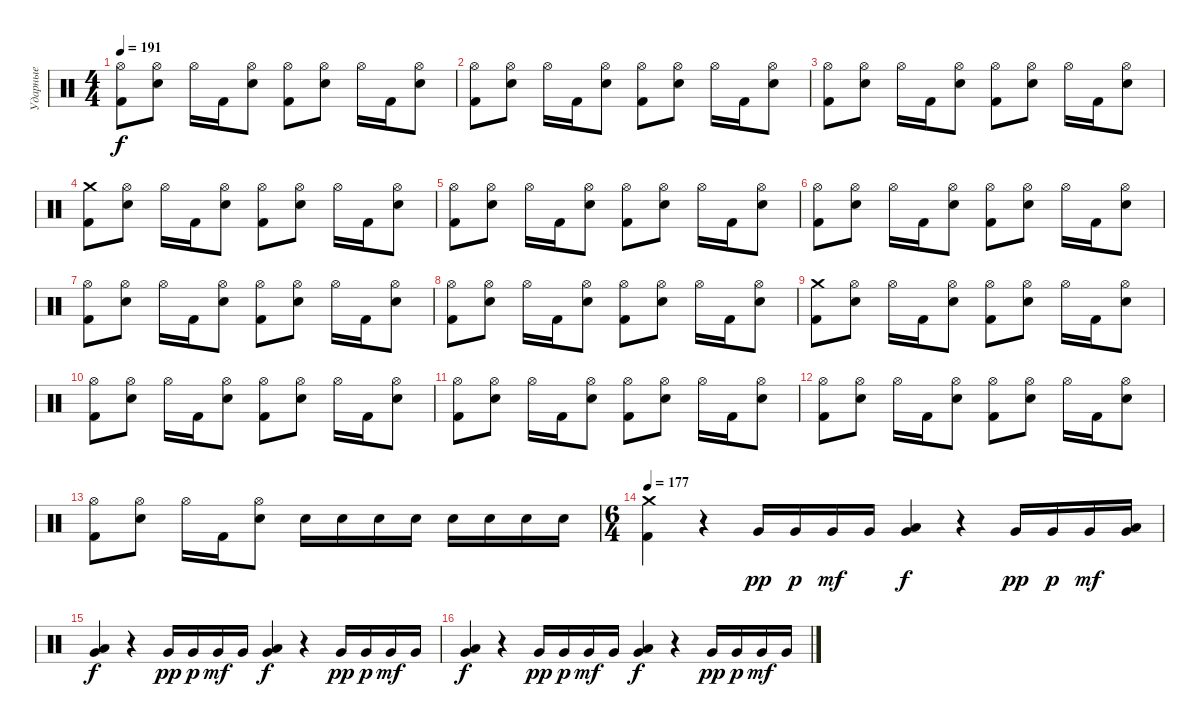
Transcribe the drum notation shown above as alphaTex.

\track ("Ударные" "Ударные") {instrument percussion}
\staff {score}
\articulation defaults
\ts (4 4)
\tempo 191
\clef neutral
\ks c
("Hi-Hat (open)" "Kick (hit) 2").8{dy f} ("Hi-Hat (open)" "Snare (hit) 2").8 "Hi-Hat (open)".16 "Kick (hit) 2".16 ("Hi-Hat (open)" "Snare (hit) 2").8 ("Hi-Hat (open)" "Kick (hit) 2").8 ("Hi-Hat (open)" "Snare (hit) 2").8 "Hi-Hat (open)".16 "Kick (hit) 2".16 ("Hi-Hat (open)" "Snare (hit) 2").8 |
("Hi-Hat (open)" "Kick (hit) 2").8 ("Hi-Hat (open)" "Snare (hit) 2").8 "Hi-Hat (open)".16 "Kick (hit) 2".16 ("Hi-Hat (open)" "Snare (hit) 2").8 ("Hi-Hat (open)" "Kick (hit) 2").8 ("Hi-Hat (open)" "Snare (hit) 2").8 "Hi-Hat (open)".16 "Kick (hit) 2".16 ("Hi-Hat (open)" "Snare (hit) 2").8 |
("Hi-Hat (open)" "Kick (hit) 2").8 ("Hi-Hat (open)" "Snare (hit) 2").8 "Hi-Hat (open)".16 "Kick (hit) 2".16 ("Hi-Hat (open)" "Snare (hit) 2").8 ("Hi-Hat (open)" "Kick (hit) 2").8 ("Hi-Hat (open)" "Snare (hit) 2").8 "Hi-Hat (open)".16 "Kick (hit) 2".16 ("Hi-Hat (open)" "Snare (hit) 2").8 |
("Crash medium (hit)" "Kick (hit) 2").8 ("Hi-Hat (open)" "Snare (hit) 2").8 "Hi-Hat (open)".16 "Kick (hit) 2".16 ("Hi-Hat (open)" "Snare (hit) 2").8 ("Hi-Hat (open)" "Kick (hit) 2").8 ("Hi-Hat (open)" "Snare (hit) 2").8 "Hi-Hat (open)".16 "Kick (hit) 2".16 ("Hi-Hat (open)" "Snare (hit) 2").8 |
("Hi-Hat (open)" "Kick (hit) 2").8 ("Hi-Hat (open)" "Snare (hit) 2").8 "Hi-Hat (open)".16 "Kick (hit) 2".16 ("Hi-Hat (open)" "Snare (hit) 2").8 ("Hi-Hat (open)" "Kick (hit) 2").8 ("Hi-Hat (open)" "Snare (hit) 2").8 "Hi-Hat (open)".16 "Kick (hit) 2".16 ("Hi-Hat (open)" "Snare (hit) 2").8 |
("Hi-Hat (open)" "Kick (hit) 2").8 ("Hi-Hat (open)" "Snare (hit) 2").8 "Hi-Hat (open)".16 "Kick (hit) 2".16 ("Hi-Hat (open)" "Snare (hit) 2").8 ("Hi-Hat (open)" "Kick (hit) 2").8 ("Hi-Hat (open)" "Snare (hit) 2").8 "Hi-Hat (open)".16 "Kick (hit) 2".16 ("Hi-Hat (open)" "Snare (hit) 2").8 |
("Hi-Hat (open)" "Kick (hit) 2").8 ("Hi-Hat (open)" "Snare (hit) 2").8 "Hi-Hat (open)".16 "Kick (hit) 2".16 ("Hi-Hat (open)" "Snare (hit) 2").8 ("Hi-Hat (open)" "Kick (hit) 2").8 ("Hi-Hat (open)" "Snare (hit) 2").8 "Hi-Hat (open)".16 "Kick (hit) 2".16 ("Hi-Hat (open)" "Snare (hit) 2").8 |
("Hi-Hat (open)" "Kick (hit) 2").8 ("Hi-Hat (open)" "Snare (hit) 2").8 "Hi-Hat (open)".16 "Kick (hit) 2".16 ("Hi-Hat (open)" "Snare (hit) 2").8 ("Hi-Hat (open)" "Kick (hit) 2").8 ("Hi-Hat (open)" "Snare (hit) 2").8 "Hi-Hat (open)".16 "Kick (hit) 2".16 ("Hi-Hat (open)" "Snare (hit) 2").8 |
("Crash medium (hit)" "Kick (hit) 2").8 ("Hi-Hat (open)" "Snare (hit) 2").8 "Hi-Hat (open)".16 "Kick (hit) 2".16 ("Hi-Hat (open)" "Snare (hit) 2").8 ("Hi-Hat (open)" "Kick (hit) 2").8 ("Hi-Hat (open)" "Snare (hit) 2").8 "Hi-Hat (open)".16 "Kick (hit) 2".16 ("Hi-Hat (open)" "Snare (hit) 2").8 |
("Hi-Hat (open)" "Kick (hit) 2").8 ("Hi-Hat (open)" "Snare (hit) 2").8 "Hi-Hat (open)".16 "Kick (hit) 2".16 ("Hi-Hat (open)" "Snare (hit) 2").8 ("Hi-Hat (open)" "Kick (hit) 2").8 ("Hi-Hat (open)" "Snare (hit) 2").8 "Hi-Hat (open)".16 "Kick (hit) 2".16 ("Hi-Hat (open)" "Snare (hit) 2").8 |
("Hi-Hat (open)" "Kick (hit) 2").8 ("Hi-Hat (open)" "Snare (hit) 2").8 "Hi-Hat (open)".16 "Kick (hit) 2".16 ("Hi-Hat (open)" "Snare (hit) 2").8 ("Hi-Hat (open)" "Kick (hit) 2").8 ("Hi-Hat (open)" "Snare (hit) 2").8 "Hi-Hat (open)".16 "Kick (hit) 2".16 ("Hi-Hat (open)" "Snare (hit) 2").8 |
("Hi-Hat (open)" "Kick (hit) 2").8 ("Hi-Hat (open)" "Snare (hit) 2").8 "Hi-Hat (open)".16 "Kick (hit) 2".16 ("Hi-Hat (open)" "Snare (hit) 2").8 ("Hi-Hat (open)" "Kick (hit) 2").8 ("Hi-Hat (open)" "Snare (hit) 2").8 "Hi-Hat (open)".16 "Kick (hit) 2".16 ("Hi-Hat (open)" "Snare (hit) 2").8 |
("Hi-Hat (open)" "Kick (hit) 2").8 ("Hi-Hat (open)" "Snare (hit) 2").8 "Hi-Hat (open)".16 "Kick (hit) 2".16 ("Hi-Hat (open)" "Snare (hit) 2").8 "Snare (hit) 2".16 "Snare (hit) 2".16 "Snare (hit) 2".16 "Snare (hit) 2".16 "Snare (hit) 2".16 "Snare (hit) 2".16 "Snare (hit) 2".16 "Snare (hit) 2".16 |
\ts (6 4)
\tempo 177
("Crash medium (hit)" "Kick (hit) 2").4 r.4 "Very Low Tom (hit)".16{dy pp} "Very Low Tom (hit)".16{dy p} "Very Low Tom (hit)".16{dy mf} "Very Low Tom (hit)".16 ("Low Tom (hit)" "Very Low Tom (hit)").4{dy f} r.4 "Very Low Tom (hit)".16{dy pp} "Very Low Tom (hit)".16{dy p} "Very Low Tom (hit)".16{dy mf} ("Low Tom (hit)" "Very Low Tom (hit)").16 |
("Low Tom (hit)" "Very Low Tom (hit)").4{dy f} r.4 "Very Low Tom (hit)".16{dy pp} "Very Low Tom (hit)".16{dy p} "Very Low Tom (hit)".16{dy mf} "Very Low Tom (hit)".16 ("Low Tom (hit)" "Very Low Tom (hit)").4{dy f} r.4 "Very Low Tom (hit)".16{dy pp} "Very Low Tom (hit)".16{dy p} "Very Low Tom (hit)".16{dy mf} "Very Low Tom (hit)".16 |
("Low Tom (hit)" "Very Low Tom (hit)").4{dy f} r.4 "Very Low Tom (hit)".16{dy pp} "Very Low Tom (hit)".16{dy p} "Very Low Tom (hit)".16{dy mf} "Very Low Tom (hit)".16 ("Low Tom (hit)" "Very Low Tom (hit)").4{dy f} r.4 "Very Low Tom (hit)".16{dy pp} "Very Low Tom (hit)".16{dy p} "Very Low Tom (hit)".16{dy mf} "Very Low Tom (hit)".16
